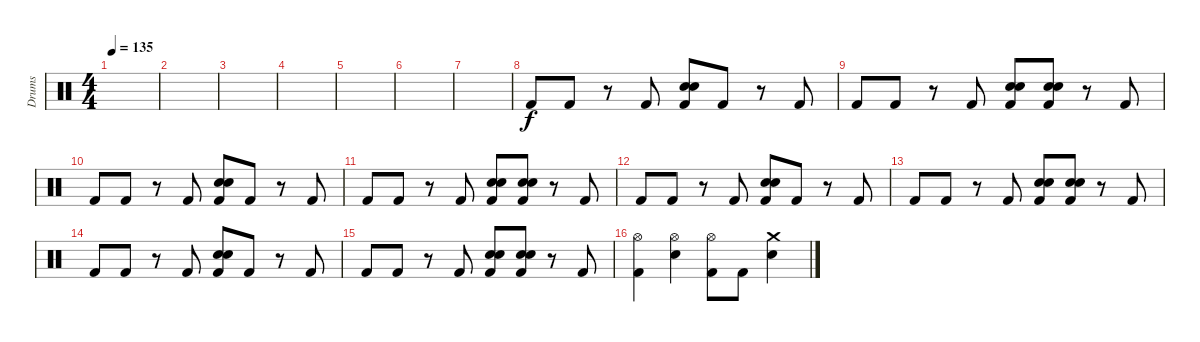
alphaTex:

\track ("Drums" "Drums") {instrument percussion}
\staff {score}
\articulation defaults
\ts (4 4)
\tempo 135
\clef neutral
\ks c
|
|
|
|
|
|
|
"Kick (hit) 2".8 "Kick (hit) 2".8 r.8 "Kick (hit) 2".8 ("Snare (hit) 2" "Electric Snare (hit)" "Kick (hit) 2").8 "Kick (hit) 2".8 r.8 "Kick (hit) 2".8 |
"Kick (hit) 2".8 "Kick (hit) 2".8 r.8 "Kick (hit) 2".8 ("Snare (hit) 2" "Electric Snare (hit)" "Kick (hit) 2").8 ("Snare (hit) 2" "Electric Snare (hit)" "Kick (hit) 2").8 r.8 "Kick (hit) 2".8 |
"Kick (hit) 2".8 "Kick (hit) 2".8 r.8 "Kick (hit) 2".8 ("Snare (hit) 2" "Electric Snare (hit)" "Kick (hit) 2").8 "Kick (hit) 2".8 r.8 "Kick (hit) 2".8 |
"Kick (hit) 2".8 "Kick (hit) 2".8 r.8 "Kick (hit) 2".8 ("Snare (hit) 2" "Electric Snare (hit)" "Kick (hit) 2").8 ("Snare (hit) 2" "Electric Snare (hit)" "Kick (hit) 2").8 r.8 "Kick (hit) 2".8 |
"Kick (hit) 2".8 "Kick (hit) 2".8 r.8 "Kick (hit) 2".8 ("Snare (hit) 2" "Electric Snare (hit)" "Kick (hit) 2").8 "Kick (hit) 2".8 r.8 "Kick (hit) 2".8 |
"Kick (hit) 2".8 "Kick (hit) 2".8 r.8 "Kick (hit) 2".8 ("Snare (hit) 2" "Electric Snare (hit)" "Kick (hit) 2").8 ("Snare (hit) 2" "Electric Snare (hit)" "Kick (hit) 2").8 r.8 "Kick (hit) 2".8 |
"Kick (hit) 2".8 "Kick (hit) 2".8 r.8 "Kick (hit) 2".8 ("Snare (hit) 2" "Electric Snare (hit)" "Kick (hit) 2").8 "Kick (hit) 2".8 r.8 "Kick (hit) 2".8 |
"Kick (hit) 2".8 "Kick (hit) 2".8 r.8 "Kick (hit) 2".8 ("Snare (hit) 2" "Electric Snare (hit)" "Kick (hit) 2").8 ("Snare (hit) 2" "Electric Snare (hit)" "Kick (hit) 2").8 r.8 "Kick (hit) 2".8 |
("Hi-Hat (open)" "Kick (hit) 2").4 ("Hi-Hat (open)" "Electric Snare (hit)").4 ("Hi-Hat (open)" "Kick (hit) 2").8 "Kick (hit) 2".8 ("Crash medium (hit)" "Electric Snare (hit)").4
